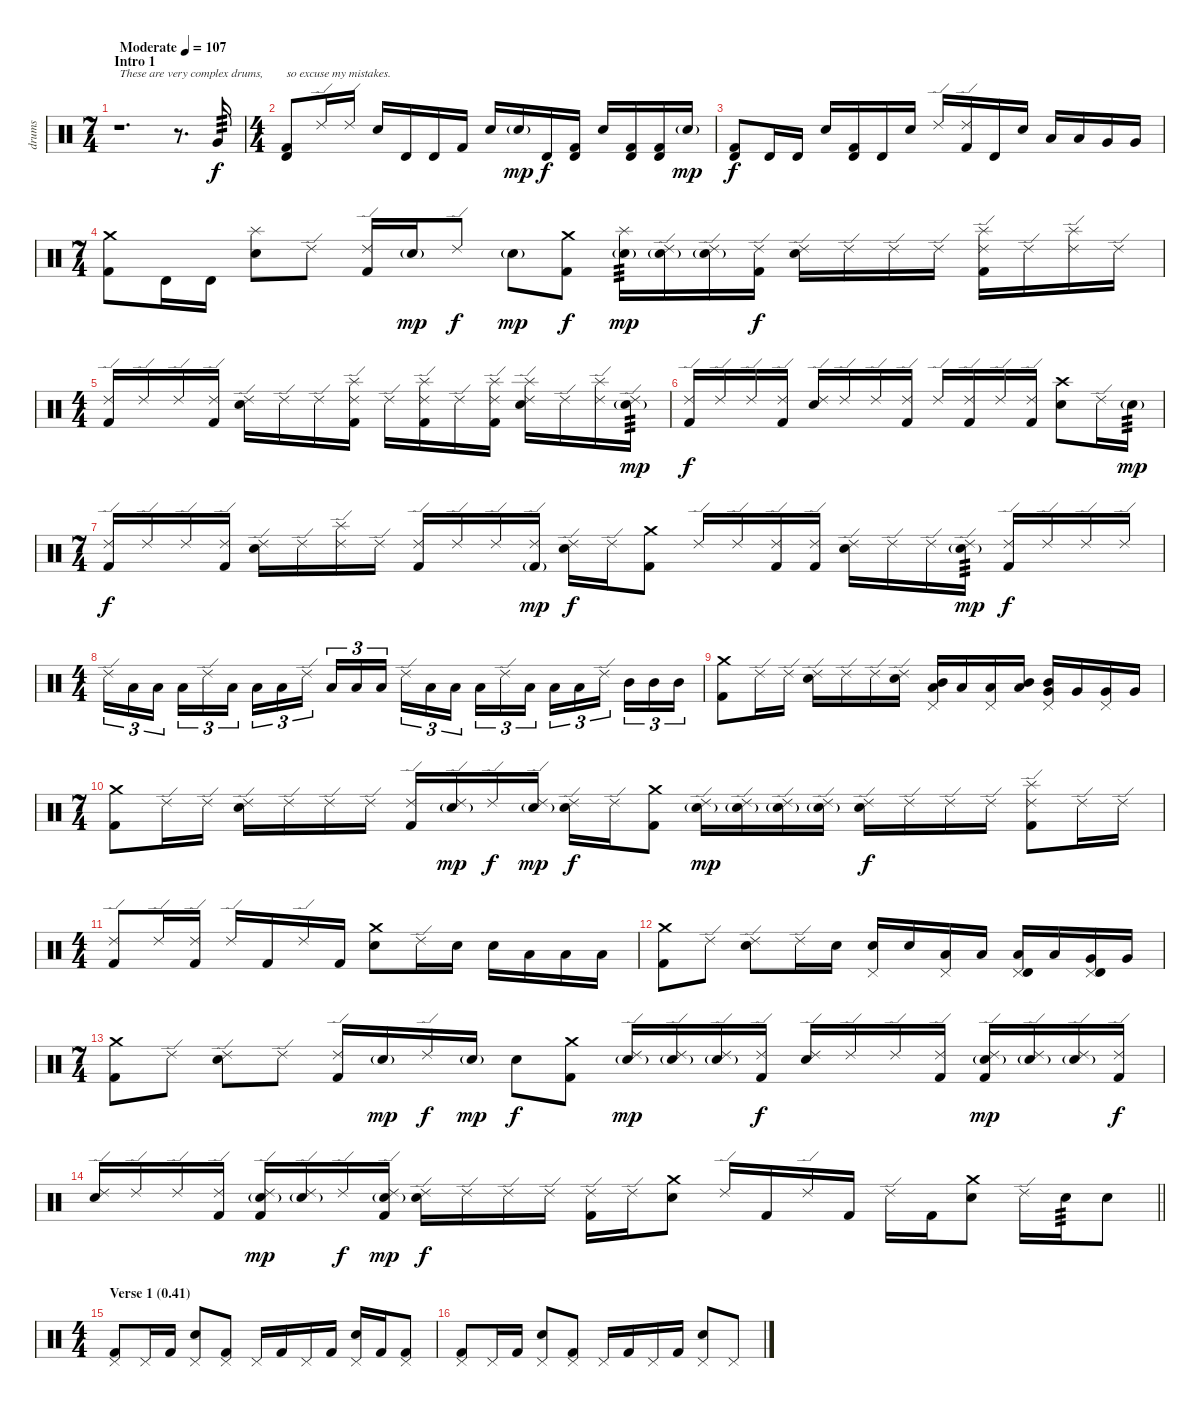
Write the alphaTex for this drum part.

\track ("drums" "drums") {instrument percussion}
\staff {score}
\articulation defaults
\ts (7 4)
\section ("" "Intro 1")
\tempo (107 "Moderate")
\clef neutral
\ks c
r.1{d txt "These are very complex drums," dy f} r.8{d} "Very Low Tom (hit)".16{tp 3} |
\ts (4 4)
("Timbale high (hit)" "Kick (hit) 2").8{txt "so excuse my mistakes."} "Ride (edge) 2".16 "Ride (edge) 2".16 "Electric Snare (hit)".16 "Timbale high (hit)".16 "Timbale high (hit)".16 "Kick (hit) 2".16 "Electric Snare (hit)".16 "Electric Snare (hit)"{g}.16{dy mp} "Timbale high (hit)".16{dy f} ("Timbale high (hit)" "Kick (hit) 2").16 "Electric Snare (hit)".16 ("Timbale high (hit)" "Kick (hit) 2").16 ("Timbale high (hit)" "Kick (hit) 2").16 "Electric Snare (hit)"{g}.16{dy mp} |
("Timbale high (hit)" "Kick (hit) 2").8{dy f} "Timbale high (hit)".16 "Timbale high (hit)".16 "Electric Snare (hit)".16 ("Timbale high (hit)" "Kick (hit) 2").16 "Timbale high (hit)".16 "Electric Snare (hit)".16 "Ride (edge) 2".16 ("Ride (edge) 2" "Kick (hit) 2").16 "Timbale high (hit)".16 "Electric Snare (hit)".16 "Low Tom (hit)".16 "Low Tom (hit)".16 "Very Low Tom (hit)".16 "Very Low Tom (hit)".16 |
\ts (7 4)
("Crash medium (hit)" "Kick (hit) 2").8 "Timbale high (hit)".16 "Timbale high (hit)".16 ("Splash (hit)" "Electric Snare (hit)").8 "Ride (edge) 2".8 ("Ride (edge) 2" "Kick (hit) 2").16 "Electric Snare (hit)"{g}.16{dy mp} "Ride (edge) 2".8{dy f} "Electric Snare (hit)"{g}.8{dy mp} ("Crash medium (hit)" "Kick (hit) 2").8{dy f} ("Splash (hit)" "Electric Snare (hit)"{g}).16{tp 3 dy mp} ("Ride (edge) 2" "Electric Snare (hit)"{g}).16 ("Ride (edge) 2" "Electric Snare (hit)"{g}).16 ("Ride (edge) 2" "Kick (hit) 2").16{dy f} ("Ride (edge) 2" "Electric Snare (hit)").16 "Ride (edge) 2".16 "Ride (edge) 2".16 "Ride (edge) 2".16 ("Ride (edge) 2" "Splash (hit)" "Kick (hit) 2").16 "Ride (edge) 2".16 ("Ride (edge) 2" "Splash (hit)").16 "Ride (edge) 2".16 |
\ts (4 4)
("Ride (edge) 2" "Kick (hit) 2").16 "Ride (edge) 2".16 "Ride (edge) 2".16 ("Ride (edge) 2" "Kick (hit) 2").16 ("Ride (edge) 2" "Electric Snare (hit)").16 "Ride (edge) 2".16 "Ride (edge) 2".16 ("Ride (edge) 2" "Splash (hit)" "Kick (hit) 2").16 "Ride (edge) 2".16 ("Ride (edge) 2" "Splash (hit)" "Kick (hit) 2").16 "Ride (edge) 2".16 ("Ride (edge) 2" "Splash (hit)" "Kick (hit) 2").16 ("Ride (edge) 2" "Splash (hit)" "Electric Snare (hit)").16 "Ride (edge) 2".16 ("Ride (edge) 2" "Splash (hit)").16 ("Ride (edge) 2" "Electric Snare (hit)"{g}).16{tp 3 dy mp} |
("Ride (edge) 2" "Kick (hit) 2").16{dy f} "Ride (edge) 2".16 "Ride (edge) 2".16 ("Ride (edge) 2" "Kick (hit) 2").16 ("Ride (edge) 2" "Electric Snare (hit)").16 "Ride (edge) 2".16 "Ride (edge) 2".16 ("Ride (edge) 2" "Kick (hit) 2").16 "Ride (edge) 2".16 ("Ride (edge) 2" "Kick (hit) 2").16 "Ride (edge) 2".16 ("Ride (edge) 2" "Kick (hit) 2").16 ("Crash high (hit)" "Electric Snare (hit)").8 "Ride (edge) 2".16 "Electric Snare (hit)"{g}.16{tp 3 dy mp} |
\ts (7 4)
("Ride (edge) 2" "Kick (hit) 2").16{dy f} "Ride (edge) 2".16 "Ride (edge) 2".16 ("Ride (edge) 2" "Kick (hit) 2").16 ("Ride (edge) 2" "Electric Snare (hit)").16 "Ride (edge) 2".16 ("Ride (edge) 2" "Splash (hit)").16 "Ride (edge) 2".16 ("Ride (edge) 2" "Kick (hit) 2").16 "Ride (edge) 2".16 "Ride (edge) 2".16 ("Ride (edge) 2" "Kick (hit) 2"{g}).16{dy mp} ("Ride (edge) 2" "Electric Snare (hit)").16{dy f} "Ride (edge) 2".16 ("Crash medium (hit)" "Kick (hit) 2").8 "Ride (edge) 2".16 "Ride (edge) 2".16 ("Ride (edge) 2" "Kick (hit) 2").16 ("Ride (edge) 2" "Kick (hit) 2").16 ("Ride (edge) 2" "Electric Snare (hit)").16 "Ride (edge) 2".16 "Ride (edge) 2".16 ("Ride (edge) 2" "Electric Snare (hit)"{g}).16{tp 3 dy mp} ("Ride (edge) 2" "Kick (hit) 2").16{dy f} "Ride (edge) 2".16 "Ride (edge) 2".16 "Ride (edge) 2".16 |
\ts (4 4)
"Ride (edge) 2".16{tu (3 2)} "Low Tom (hit)".16{tu (3 2)} "Low Tom (hit)".16{tu (3 2) beam splitsecondary} "Low Tom (hit)".16{tu (3 2)} "Ride (edge) 2".16{tu (3 2)} "Low Tom (hit)".16{tu (3 2)} "Low Tom (hit)".16{tu (3 2)} "Low Tom (hit)".16{tu (3 2)} "Ride (edge) 2".16{tu (3 2) beam splitsecondary} "Low Tom (hit)".16{tu (3 2)} "Low Tom (hit)".16{tu (3 2)} "Low Tom (hit)".16{tu (3 2)} "Ride (edge) 2".16{tu (3 2)} "Low Tom (hit)".16{tu (3 2)} "Low Tom (hit)".16{tu (3 2) beam splitsecondary} "Low Tom (hit)".16{tu (3 2)} "Ride (edge) 2".16{tu (3 2)} "Low Tom (hit)".16{tu (3 2)} "Low Tom (hit)".16{tu (3 2)} "Low Tom (hit)".16{tu (3 2)} "Ride (edge) 2".16{tu (3 2) beam splitsecondary} "Mid Tom (hit)".16{tu (3 2)} "Mid Tom (hit)".16{tu (3 2)} "Mid Tom (hit)".16{tu (3 2)} |
("Crash medium (hit)" "Kick (hit) 2").8 "Ride (edge) 2".16 "Ride (edge) 2".16 ("Ride (edge) 2" "Electric Snare (hit)").16 "Ride (edge) 2".16 "Ride (edge) 2".16 ("Ride (edge) 2" "Electric Snare (hit)").16 ("Pedal Hi-Hat (hit)" "Mid Tom (hit)" "Low Tom (hit)").16 "Low Tom (hit)".16 ("Pedal Hi-Hat (hit)" "Low Tom (hit)").16 ("Mid Tom (hit)" "Low Tom (hit)").16 ("Pedal Hi-Hat (hit)" "Mid Tom (hit)" "Very Low Tom (hit)").16 "Very Low Tom (hit)".16 ("Pedal Hi-Hat (hit)" "Very Low Tom (hit)").16 "Very Low Tom (hit)".16 |
\ts (7 4)
("Crash medium (hit)" "Kick (hit) 2").8 "Ride (edge) 2".16 "Ride (edge) 2".16 ("Ride (edge) 2" "Electric Snare (hit)").16 "Ride (edge) 2".16 "Ride (edge) 2".16 "Ride (edge) 2".16 ("Ride (edge) 2" "Kick (hit) 2").16 ("Ride (edge) 2" "Electric Snare (hit)"{g}).16{dy mp} "Ride (edge) 2".16{dy f} ("Ride (edge) 2" "Electric Snare (hit)"{g}).16{dy mp} ("Ride (edge) 2" "Electric Snare (hit)").16{dy f} "Ride (edge) 2".16 ("Crash medium (hit)" "Kick (hit) 2").8 ("Ride (edge) 2" "Electric Snare (hit)"{g}).16{dy mp} ("Ride (edge) 2" "Electric Snare (hit)"{g}).16 ("Ride (edge) 2" "Electric Snare (hit)"{g}).16 ("Ride (edge) 2" "Electric Snare (hit)"{g}).16 ("Ride (edge) 2" "Electric Snare (hit)").16{dy f} "Ride (edge) 2".16 "Ride (edge) 2".16 "Ride (edge) 2".16 ("Ride (edge) 2" "Splash (hit)" "Kick (hit) 2").8 "Ride (edge) 2".16 "Ride (edge) 2".16 |
\ts (4 4)
("Ride (edge) 2" "Kick (hit) 2").8 "Ride (edge) 2".16 ("Ride (edge) 2" "Kick (hit) 2").16 "Ride (edge) 2".16 "Kick (hit) 2".16 "Ride (edge) 2".16 "Kick (hit) 2".16 ("Crash medium (hit)" "Electric Snare (hit)").8 "Ride (edge) 2".16 "Electric Snare (hit)".16 "Electric Snare (hit)".16 "Low Tom (hit)".16 "Low Tom (hit)".16 "Low Tom (hit)".16 |
("Crash medium (hit)" "Kick (hit) 2").8 "Ride (edge) 2".8 ("Ride (edge) 2" "Electric Snare (hit)").8 "Ride (edge) 2".16 "Electric Snare (hit)".16 ("Pedal Hi-Hat (hit)" "Electric Snare (hit)").16 "Electric Snare (hit)".16 ("Pedal Hi-Hat (hit)" "Low Tom (hit)").16 "Low Tom (hit)".16 ("Pedal Hi-Hat (hit)" "Timbale high (hit)" "Low Tom (hit)").16 "Low Tom (hit)".16 ("Pedal Hi-Hat (hit)" "Timbale high (hit)" "Very Low Tom (hit)").16 "Very Low Tom (hit)".16 |
\ts (7 4)
("Crash medium (hit)" "Kick (hit) 2").8 "Ride (edge) 2".8 ("Ride (edge) 2" "Electric Snare (hit)").8 "Ride (edge) 2".8 ("Ride (edge) 2" "Kick (hit) 2").16 "Electric Snare (hit)"{g}.16{dy mp} "Ride (edge) 2".16{dy f} "Electric Snare (hit)"{g}.16{dy mp} "Electric Snare (hit)".8{dy f} ("Crash medium (hit)" "Kick (hit) 2").8 ("Ride (edge) 2" "Electric Snare (hit)"{g}).16{dy mp} ("Ride (edge) 2" "Electric Snare (hit)"{g}).16 ("Ride (edge) 2" "Electric Snare (hit)"{g}).16 ("Ride (edge) 2" "Kick (hit) 2").16{dy f} ("Ride (edge) 2" "Electric Snare (hit)").16 "Ride (edge) 2".16 "Ride (edge) 2".16 ("Ride (edge) 2" "Kick (hit) 2").16 ("Ride (edge) 2" "Electric Snare (hit)"{g} "Kick (hit) 2").16{dy mp} ("Ride (edge) 2" "Electric Snare (hit)"{g}).16 ("Ride (edge) 2" "Electric Snare (hit)"{g}).16 ("Ride (edge) 2" "Kick (hit) 2").16{dy f} |
\barLineRight lightlight
("Ride (edge) 2" "Electric Snare (hit)").16 "Ride (edge) 2".16 "Ride (edge) 2".16 ("Ride (edge) 2" "Kick (hit) 2").16 ("Ride (edge) 2" "Electric Snare (hit)"{g} "Kick (hit) 2").16{dy mp} ("Ride (edge) 2" "Electric Snare (hit)"{g}).16 "Ride (edge) 2".16{dy f} ("Ride (edge) 2" "Electric Snare (hit)"{g} "Kick (hit) 2").16{dy mp} ("Ride (edge) 2" "Electric Snare (hit)").16{dy f} "Ride (edge) 2".16 "Ride (edge) 2".16 "Ride (edge) 2".16 ("Ride (edge) 2" "Kick (hit) 2").16 "Ride (edge) 2".16 ("Crash medium (hit)" "Electric Snare (hit)").8 "Ride (edge) 2".16 "Kick (hit) 2".16 "Ride (edge) 2".16 "Kick (hit) 2".16 "Ride (edge) 2".16 "Kick (hit) 2".16 ("Crash medium (hit)" "Electric Snare (hit)").8 "Ride (edge) 2".16 "Electric Snare (hit)".16{tp 3} "Electric Snare (hit)".8 |
\ts (4 4)
\section ("" "Verse 1 (0.41)")
("Pedal Hi-Hat (hit)" "Kick (hit) 2").8 "Pedal Hi-Hat (hit)".16 "Kick (hit) 2".16 ("Pedal Hi-Hat (hit)" "Electric Snare (hit)").8 ("Pedal Hi-Hat (hit)" "Kick (hit) 2").8 "Pedal Hi-Hat (hit)".16 "Kick (hit) 2".16 "Pedal Hi-Hat (hit)".16 "Kick (hit) 2".16 ("Pedal Hi-Hat (hit)" "Electric Snare (hit)").16 "Kick (hit) 2".16 ("Pedal Hi-Hat (hit)" "Kick (hit) 2").8 |
("Pedal Hi-Hat (hit)" "Kick (hit) 2").8 "Pedal Hi-Hat (hit)".16 "Kick (hit) 2".16 ("Pedal Hi-Hat (hit)" "Electric Snare (hit)").8 ("Pedal Hi-Hat (hit)" "Kick (hit) 2").8 "Pedal Hi-Hat (hit)".16 "Kick (hit) 2".16 "Pedal Hi-Hat (hit)".16 "Kick (hit) 2".16 ("Pedal Hi-Hat (hit)" "Electric Snare (hit)").8 "Pedal Hi-Hat (hit)".8
